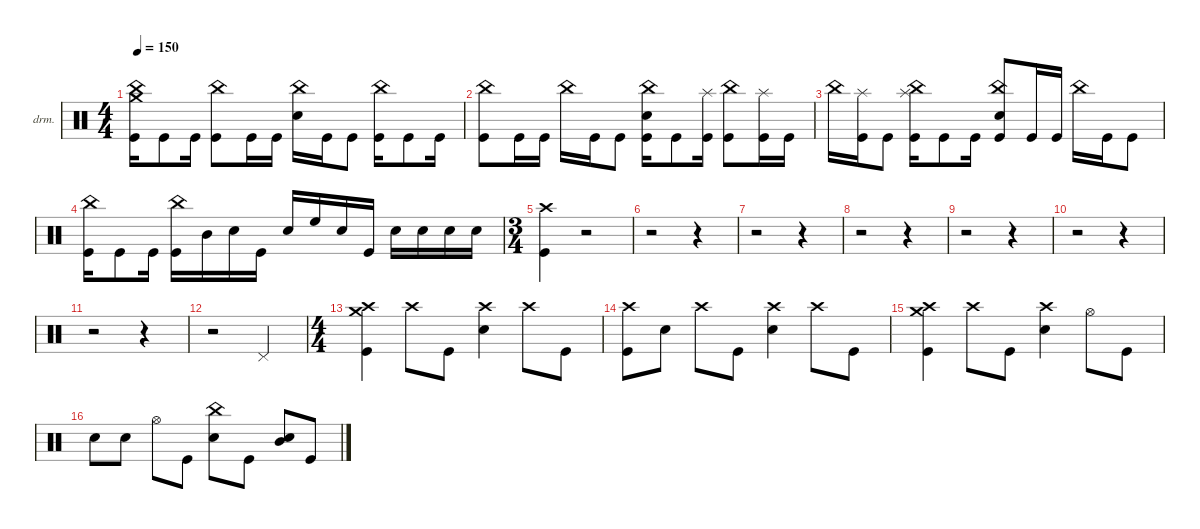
\defaultSystemsLayout 4
\hideDynamics
\bracketExtendMode nobrackets
\firstSystemTrackNameOrientation horizontal
\track ("Drumkit" "drm.") {instrument percussion}
\staff {score}
\articulation defaults
\ts (4 4)
\tempo 150
\clef neutral
\ks c
("Kick (hit)" "China (hit)" "Crash medium (hit)").16{dy fff} "Kick (hit)".8 "Kick (hit)".16 ("Kick (hit)" "China (hit)").8 "Kick (hit)".16 "Kick (hit)".16 ("Snare (hit) 2" "China (hit)").16 "Kick (hit)".16 "Kick (hit)".8{dy ff} ("Kick (hit)" "China (hit)").16 "Kick (hit)".8 "Kick (hit)".16{dy fff} |
("Kick (hit)" "China (hit)").8 "Kick (hit)".16 "Kick (hit)".16{dy ff} "China (hit)".16 "Kick (hit)".16{dy fff} "Kick (hit)".8 ("Kick (hit)" "Snare (hit) 2" "China (hit)").16 "Kick (hit)".8 ("Kick (hit)" "Splash (hit)").16 ("Kick (hit)" "China (hit)").8 ("Kick (hit)" "Splash (hit)").16 "Kick (hit)".16 |
"China (hit)".16{dy ff} ("Kick (hit)" "Splash (hit)").16 "Kick (hit)".8 ("Kick (hit)" "China (hit)" "Splash (hit)").16 "Kick (hit)".8 "Kick (hit)".16{dy fff} ("Kick (hit)" "Snare (hit) 2" "China (hit)").8 "Kick (hit)".16 "Kick (hit)".16{dy ff} "China (hit)".16 "Kick (hit)".16{dy fff} "Kick (hit)".8 |
("Kick (hit)" "China (hit)").16 "Kick (hit)".8 "Kick (hit)".16 ("Kick (hit)" "China (hit)").16 "Mid Tom (hit)".16{dy ff} "Snare (hit) 2".16 "Kick (hit)".16{dy fff} "Snare (hit) 2".16 "High Floor Tom (hit)".16{dy ff} "Snare (hit) 2".16 "Kick (hit)".16{dy fff} "Snare (hit) 2".16{dy ff} "Snare (hit) 2".16{dy fff} "Snare (hit) 2".16{dy ff} "Snare (hit) 2".16{dy fff} |
\ts (3 4)
\beaming (8 2 2 2)
("Kick (hit)" "Crash high (hit)"{acc #}).4 r.2 |
r.2 r.4 |
r.2 r.4 |
r.2 r.4 |
r.2 r.4 |
r.2 r.4 |
r.2 r.4 |
r.2 "Pedal Hi-Hat (hit)"{acc #}.4{dy p} |
\ts (4 4)
\beaming (8 2 2 2 2)
("Kick (hit)" "Crash high (hit)"{acc #} "Crash medium (hit)").4{dy fff} "Crash high (hit)"{acc #}.8{dy ff} "Kick (hit)".8{dy fff} ("Snare (hit) 2" "Crash high (hit)"{acc #}).4 "Crash high (hit)"{acc #}.8{dy ff} "Kick (hit)".8{dy fff} |
("Kick (hit)" "Crash high (hit)"{acc #}).8{dy ff} "Snare (hit) 2".8{dy p} "Crash high (hit)"{acc #}.8{dy ff} "Kick (hit)".8{dy fff} ("Snare (hit) 2" "Crash high (hit)"{acc #}).4 "Crash high (hit)"{acc #}.8{dy ff} "Kick (hit)".8{dy fff} |
("Kick (hit)" "Crash high (hit)"{acc #} "Crash medium (hit)").4{dy ff} "Crash high (hit)"{acc #}.8 "Kick (hit)".8{dy fff} ("Snare (hit) 2" "Crash high (hit)"{acc #}).4 "Hi-Hat (open)"{acc #}.8{dy ff} "Kick (hit)".8{dy fff} |
"Snare (hit) 2".8{dy mf} "Snare (hit) 2".8{dy fff} "Hi-Hat (open)"{acc #}.8{dy ff} "Kick (hit)".8{dy fff} ("Snare (hit) 2" "China (hit)").8 "Kick (hit)".8 ("Snare (hit) 2" "Mid Tom (hit)").8{dy ff} "Kick (hit)".8{dy fff}
